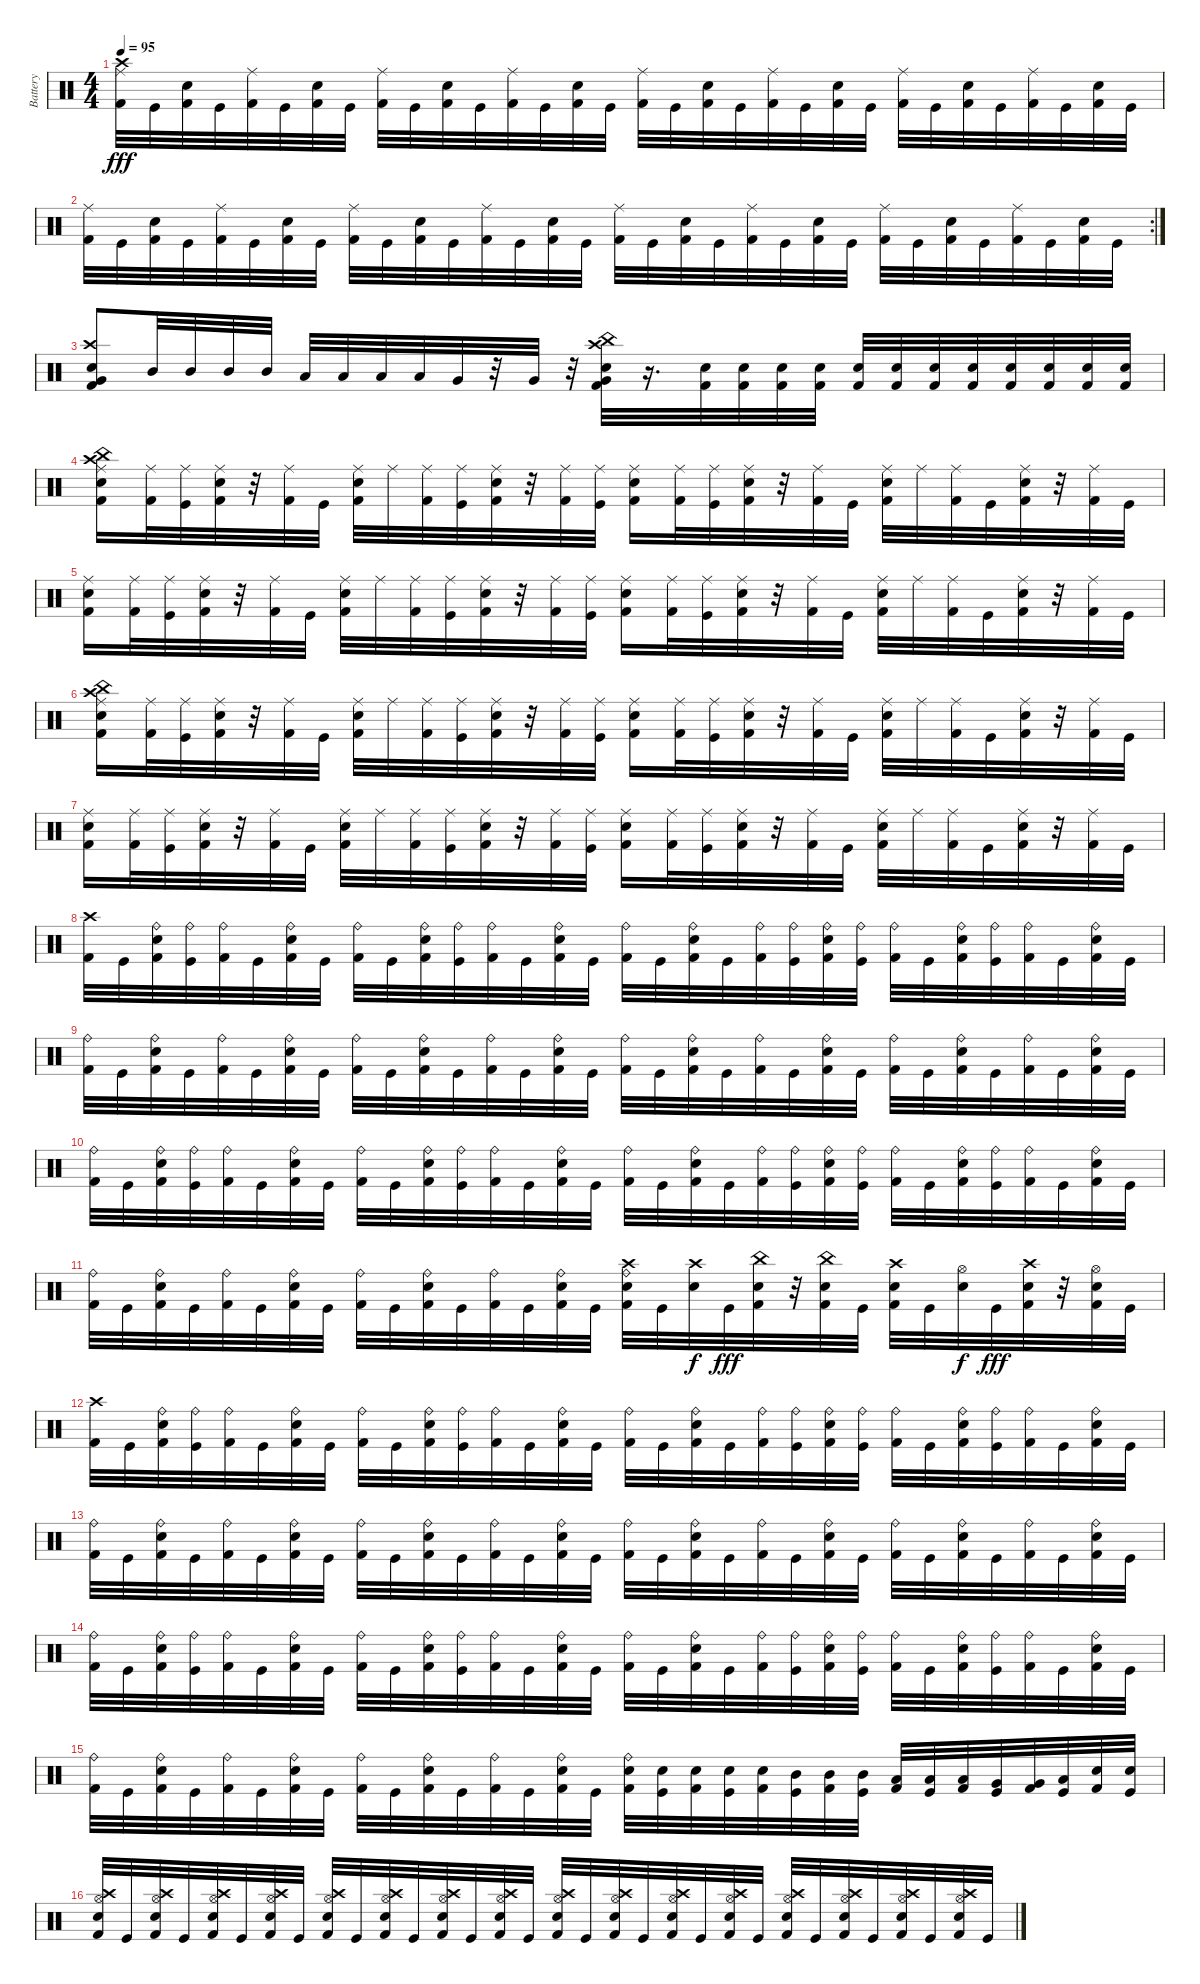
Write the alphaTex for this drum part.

\track ("Battery" "Battery") {instrument percussion}
\staff {score}
\articulation defaults
\ts (4 4)
\tempo 95
\clef neutral
\ks c
("Ride (middle)" "Kick (hit) 2" "Crash high (hit)").32{dy fff} "Kick (hit)".32 ("Electric Snare (hit)" "Kick (hit) 2").32 "Kick (hit)".32 ("Kick (hit) 2" "Ride (middle)").32 "Kick (hit)".32 ("Kick (hit) 2" "Electric Snare (hit)").32 "Kick (hit)".32 ("Kick (hit) 2" "Ride (middle)").32 "Kick (hit)".32 ("Electric Snare (hit)" "Kick (hit) 2").32 "Kick (hit)".32 ("Ride (middle)" "Kick (hit) 2").32 "Kick (hit)".32 ("Electric Snare (hit)" "Kick (hit) 2").32 "Kick (hit)".32 ("Kick (hit) 2" "Ride (middle)").32 "Kick (hit)".32 ("Kick (hit) 2" "Electric Snare (hit)").32 "Kick (hit)".32 ("Kick (hit) 2" "Ride (middle)").32 "Kick (hit)".32 ("Electric Snare (hit)" "Kick (hit) 2").32 "Kick (hit)".32 ("Kick (hit) 2" "Ride (middle)").32 "Kick (hit)".32 ("Kick (hit) 2" "Electric Snare (hit)").32 "Kick (hit)".32 ("Ride (middle)" "Kick (hit) 2").32 "Kick (hit)".32 ("Kick (hit) 2" "Electric Snare (hit)").32 "Kick (hit)".32 |
\rc 2
("Kick (hit) 2" "Ride (middle)").32 "Kick (hit)".32 ("Electric Snare (hit)" "Kick (hit) 2").32 "Kick (hit)".32 ("Ride (middle)" "Kick (hit) 2").32 "Kick (hit)".32 ("Kick (hit) 2" "Electric Snare (hit)").32 "Kick (hit)".32 ("Ride (middle)" "Kick (hit) 2").32 "Kick (hit)".32 ("Electric Snare (hit)" "Kick (hit) 2").32 "Kick (hit)".32 ("Kick (hit) 2" "Ride (middle)").32 "Kick (hit)".32 ("Electric Snare (hit)" "Kick (hit) 2").32 "Kick (hit)".32 ("Ride (middle)" "Kick (hit) 2").32 "Kick (hit)".32 ("Electric Snare (hit)" "Kick (hit) 2").32 "Kick (hit)".32 ("Kick (hit) 2" "Ride (middle)").32 "Kick (hit)".32 ("Electric Snare (hit)" "Kick (hit) 2").32 "Kick (hit)".32 ("Ride (middle)" "Kick (hit) 2").32 "Kick (hit)".32 ("Electric Snare (hit)" "Kick (hit) 2").32 "Kick (hit)".32 ("Kick (hit) 2" "Ride (middle)").32 "Kick (hit)".32 ("Kick (hit) 2" "Electric Snare (hit)").32 "Kick (hit)".32 |
("Very Low Tom (hit)" "Electric Snare (hit)" "Crash high (hit)" "Kick (hit) 2").8 "Mid Tom (hit)".32 "Mid Tom (hit)".32 "Mid Tom (hit)".32 "Mid Tom (hit)".32 "Low Tom (hit)".32 "Low Tom (hit)".32 "Low Tom (hit)".32 "Low Tom (hit)".32 "Very Low Tom (hit)".32 r.32 "Very Low Tom (hit)".32 r.32 ("Electric Snare (hit)" "Crash high (hit)" "Very Low Tom (hit)" "China (hit)" "Kick (hit) 2").32 r.16{d} ("Electric Snare (hit)" "Kick (hit) 2").32 ("Electric Snare (hit)" "Kick (hit) 2").32 ("Electric Snare (hit)" "Kick (hit) 2").32 ("Electric Snare (hit)" "Kick (hit) 2").32 ("Electric Snare (hit)" "Kick (hit) 2").32 ("Electric Snare (hit)" "Kick (hit) 2").32 ("Electric Snare (hit)" "Kick (hit) 2").32 ("Electric Snare (hit)" "Kick (hit) 2").32 ("Electric Snare (hit)" "Kick (hit) 2").32 ("Electric Snare (hit)" "Kick (hit) 2").32 ("Electric Snare (hit)" "Kick (hit) 2").32 ("Electric Snare (hit)" "Kick (hit) 2").32 |
("Electric Snare (hit)" "China (hit)" "Crash high (hit)" "Kick (hit) 2" "Ride (middle)").16 ("Kick (hit) 2" "Ride (middle)").32 ("Ride (middle)" "Kick (hit)").32 ("Electric Snare (hit)" "Ride (middle)" "Kick (hit) 2").32 r.32 ("Kick (hit) 2" "Ride (middle)").32 "Kick (hit)".32 ("Kick (hit) 2" "Electric Snare (hit)" "Ride (middle)").32 "Ride (middle)".32 ("Kick (hit) 2" "Ride (middle)").32 ("Kick (hit)" "Ride (middle)").32 ("Electric Snare (hit)" "Ride (middle)" "Kick (hit) 2").32 r.32 ("Ride (middle)" "Kick (hit) 2").32 ("Ride (middle)" "Kick (hit)").32 ("Kick (hit) 2" "Ride (middle)" "Electric Snare (hit)").16 ("Ride (middle)" "Kick (hit) 2").32 ("Kick (hit)" "Ride (middle)").32 ("Kick (hit) 2" "Ride (middle)" "Electric Snare (hit)").32 r.32 ("Ride (middle)" "Kick (hit) 2").32 "Kick (hit)".32 ("Electric Snare (hit)" "Kick (hit) 2" "Ride (middle)").32 "Ride (middle)".32 ("Kick (hit) 2" "Ride (middle)").32 "Kick (hit)".32 ("Kick (hit) 2" "Ride (middle)" "Electric Snare (hit)").32 r.32 ("Kick (hit) 2" "Ride (middle)").32 "Kick (hit)".32 |
("Electric Snare (hit)" "Ride (middle)" "Kick (hit) 2").16 ("Kick (hit) 2" "Ride (middle)").32 ("Kick (hit)" "Ride (middle)").32 ("Electric Snare (hit)" "Kick (hit) 2" "Ride (middle)").32 r.32 ("Ride (middle)" "Kick (hit) 2").32 "Kick (hit)".32 ("Electric Snare (hit)" "Kick (hit) 2" "Ride (middle)").32 "Ride (middle)".32 ("Ride (middle)" "Kick (hit) 2").32 ("Ride (middle)" "Kick (hit)").32 ("Ride (middle)" "Electric Snare (hit)" "Kick (hit) 2").32 r.32 ("Ride (middle)" "Kick (hit) 2").32 ("Kick (hit)" "Ride (middle)").32 ("Electric Snare (hit)" "Kick (hit) 2" "Ride (middle)").16 ("Ride (middle)" "Kick (hit) 2").32 ("Ride (middle)" "Kick (hit)").32 ("Kick (hit) 2" "Ride (middle)" "Electric Snare (hit)").32 r.32 ("Ride (middle)" "Kick (hit) 2").32 "Kick (hit)".32 ("Kick (hit) 2" "Ride (middle)" "Electric Snare (hit)").32 "Ride (middle)".32 ("Kick (hit) 2" "Ride (middle)").32 "Kick (hit)".32 ("Ride (middle)" "Electric Snare (hit)" "Kick (hit) 2").32 r.32 ("Kick (hit) 2" "Ride (middle)").32 "Kick (hit)".32 |
("Ride (middle)" "China (hit)" "Kick (hit) 2" "Electric Snare (hit)" "Crash high (hit)").16 ("Ride (middle)" "Kick (hit) 2").32 ("Kick (hit)" "Ride (middle)").32 ("Electric Snare (hit)" "Kick (hit) 2" "Ride (middle)").32 r.32 ("Ride (middle)" "Kick (hit) 2").32 "Kick (hit)".32 ("Electric Snare (hit)" "Ride (middle)" "Kick (hit) 2").32 "Ride (middle)".32 ("Ride (middle)" "Kick (hit) 2").32 ("Kick (hit)" "Ride (middle)").32 ("Ride (middle)" "Electric Snare (hit)" "Kick (hit) 2").32 r.32 ("Ride (middle)" "Kick (hit) 2").32 ("Ride (middle)" "Kick (hit)").32 ("Electric Snare (hit)" "Ride (middle)" "Kick (hit) 2").16 ("Kick (hit) 2" "Ride (middle)").32 ("Kick (hit)" "Ride (middle)").32 ("Kick (hit) 2" "Electric Snare (hit)" "Ride (middle)").32 r.32 ("Kick (hit) 2" "Ride (middle)").32 "Kick (hit)".32 ("Kick (hit) 2" "Electric Snare (hit)" "Ride (middle)").32 "Ride (middle)".32 ("Kick (hit) 2" "Ride (middle)").32 "Kick (hit)".32 ("Electric Snare (hit)" "Kick (hit) 2" "Ride (middle)").32 r.32 ("Ride (middle)" "Kick (hit) 2").32 "Kick (hit)".32 |
("Ride (middle)" "Kick (hit) 2" "Electric Snare (hit)").16 ("Kick (hit) 2" "Ride (middle)").32 ("Kick (hit)" "Ride (middle)").32 ("Electric Snare (hit)" "Kick (hit) 2" "Ride (middle)").32 r.32 ("Kick (hit) 2" "Ride (middle)").32 "Kick (hit)".32 ("Kick (hit) 2" "Electric Snare (hit)" "Ride (middle)").32 "Ride (middle)".32 ("Ride (middle)" "Kick (hit) 2").32 ("Kick (hit)" "Ride (middle)").32 ("Electric Snare (hit)" "Ride (middle)" "Kick (hit) 2").32 r.32 ("Ride (middle)" "Kick (hit) 2").32 ("Kick (hit)" "Ride (middle)").32 ("Kick (hit) 2" "Electric Snare (hit)" "Ride (middle)").16 ("Ride (middle)" "Kick (hit) 2").32 ("Kick (hit)" "Ride (middle)").32 ("Electric Snare (hit)" "Ride (middle)" "Kick (hit) 2").32 r.32 ("Ride (middle)" "Kick (hit) 2").32 "Kick (hit)".32 ("Ride (middle)" "Kick (hit) 2" "Electric Snare (hit)").32 "Ride (middle)".32 ("Ride (middle)" "Kick (hit) 2").32 "Kick (hit)".32 ("Kick (hit) 2" "Electric Snare (hit)" "Ride (middle)").32 r.32 ("Ride (middle)" "Kick (hit) 2").32 "Kick (hit)".32 |
("Crash high (hit)" "Kick (hit) 2").32 "Kick (hit)".32 ("Ride (bell)" "Electric Snare (hit)" "Kick (hit) 2").32 ("Ride (bell)" "Kick (hit)").32 ("Ride (bell)" "Kick (hit) 2").32 "Kick (hit)".32 ("Ride (bell)" "Electric Snare (hit)" "Kick (hit) 2").32 "Kick (hit)".32 ("Ride (bell)" "Kick (hit) 2").32 "Kick (hit)".32 ("Electric Snare (hit)" "Ride (bell)" "Kick (hit) 2").32 ("Ride (bell)" "Kick (hit)").32 ("Ride (bell)" "Kick (hit) 2").32 "Kick (hit)".32 ("Ride (bell)" "Electric Snare (hit)" "Kick (hit) 2").32 "Kick (hit)".32 ("Ride (bell)" "Kick (hit) 2").32 "Kick (hit)".32 ("Electric Snare (hit)" "Ride (bell)" "Kick (hit) 2").32 "Kick (hit)".32 ("Ride (bell)" "Kick (hit) 2").32 ("Ride (bell)" "Kick (hit)").32 ("Electric Snare (hit)" "Ride (bell)" "Kick (hit) 2").32 ("Ride (bell)" "Kick (hit)").32 ("Ride (bell)" "Kick (hit) 2").32 "Kick (hit)".32 ("Electric Snare (hit)" "Ride (bell)" "Kick (hit) 2").32 ("Ride (bell)" "Kick (hit)").32 ("Ride (bell)" "Kick (hit) 2").32 "Kick (hit)".32 ("Electric Snare (hit)" "Ride (bell)" "Kick (hit) 2").32 "Kick (hit)".32 |
("Ride (bell)" "Kick (hit) 2").32 "Kick (hit)".32 ("Ride (bell)" "Electric Snare (hit)" "Kick (hit) 2").32 "Kick (hit)".32 ("Ride (bell)" "Kick (hit) 2").32 "Kick (hit)".32 ("Ride (bell)" "Electric Snare (hit)" "Kick (hit) 2").32 "Kick (hit)".32 ("Ride (bell)" "Kick (hit) 2").32 "Kick (hit)".32 ("Electric Snare (hit)" "Ride (bell)" "Kick (hit) 2").32 "Kick (hit)".32 ("Ride (bell)" "Kick (hit) 2").32 "Kick (hit)".32 ("Ride (bell)" "Electric Snare (hit)" "Kick (hit) 2").32 "Kick (hit)".32 ("Ride (bell)" "Kick (hit) 2").32 "Kick (hit)".32 ("Electric Snare (hit)" "Ride (bell)" "Kick (hit) 2").32 "Kick (hit)".32 ("Ride (bell)" "Kick (hit) 2").32 "Kick (hit)".32 ("Ride (bell)" "Electric Snare (hit)" "Kick (hit) 2").32 "Kick (hit)".32 ("Ride (bell)" "Kick (hit) 2").32 "Kick (hit)".32 ("Ride (bell)" "Electric Snare (hit)" "Kick (hit) 2").32 "Kick (hit)".32 ("Ride (bell)" "Kick (hit) 2").32 "Kick (hit)".32 ("Ride (bell)" "Electric Snare (hit)" "Kick (hit) 2").32 "Kick (hit)".32 |
("Ride (bell)" "Kick (hit) 2").32 "Kick (hit)".32 ("Ride (bell)" "Electric Snare (hit)" "Kick (hit) 2").32 ("Ride (bell)" "Kick (hit)").32 ("Ride (bell)" "Kick (hit) 2").32 "Kick (hit)".32 ("Ride (bell)" "Electric Snare (hit)" "Kick (hit) 2").32 "Kick (hit)".32 ("Ride (bell)" "Kick (hit) 2").32 "Kick (hit)".32 ("Electric Snare (hit)" "Ride (bell)" "Kick (hit) 2").32 ("Ride (bell)" "Kick (hit)").32 ("Ride (bell)" "Kick (hit) 2").32 "Kick (hit)".32 ("Electric Snare (hit)" "Ride (bell)" "Kick (hit) 2").32 "Kick (hit)".32 ("Ride (bell)" "Kick (hit) 2").32 "Kick (hit)".32 ("Electric Snare (hit)" "Ride (bell)" "Kick (hit) 2").32 "Kick (hit)".32 ("Ride (bell)" "Kick (hit) 2").32 ("Ride (bell)" "Kick (hit)").32 ("Electric Snare (hit)" "Ride (bell)" "Kick (hit) 2").32 ("Ride (bell)" "Kick (hit)").32 ("Ride (bell)" "Kick (hit) 2").32 "Kick (hit)".32 ("Electric Snare (hit)" "Ride (bell)" "Kick (hit) 2").32 ("Ride (bell)" "Kick (hit)").32 ("Ride (bell)" "Kick (hit) 2").32 "Kick (hit)".32 ("Ride (bell)" "Electric Snare (hit)" "Kick (hit) 2").32 "Kick (hit)".32 |
("Ride (bell)" "Kick (hit) 2").32 "Kick (hit)".32 ("Electric Snare (hit)" "Ride (bell)" "Kick (hit) 2").32 "Kick (hit)".32 ("Ride (bell)" "Kick (hit) 2").32 "Kick (hit)".32 ("Ride (bell)" "Electric Snare (hit)" "Kick (hit) 2").32 "Kick (hit)".32 ("Ride (bell)" "Kick (hit) 2").32 "Kick (hit)".32 ("Ride (bell)" "Electric Snare (hit)" "Kick (hit) 2").32 "Kick (hit)".32 ("Ride (bell)" "Kick (hit) 2").32 "Kick (hit)".32 ("Electric Snare (hit)" "Ride (bell)" "Kick (hit) 2").32 "Kick (hit)".32 ("Ride (bell)" "Kick (hit) 2" "Crash high (hit)" "Electric Snare (hit)").32 "Kick (hit)".32 ("Crash high (hit)" "Electric Snare (hit)").32{dy f} "Kick (hit)".32{dy fff} ("Electric Snare (hit)" "China (hit)" "Kick (hit) 2").32 r.32 ("China (hit)" "Electric Snare (hit)" "Kick (hit) 2").32 "Kick (hit)".32 ("Electric Snare (hit)" "Kick (hit) 2" "Crash high (hit)").32 "Kick (hit)".32 ("Hi-Hat (open)" "Electric Snare (hit)").32{dy f} "Kick (hit)".32{dy fff} ("Crash high (hit)" "Electric Snare (hit)" "Kick (hit) 2").32 r.32 ("Hi-Hat (open)" "Electric Snare (hit)" "Kick (hit) 2").32 "Kick (hit)".32 |
("Crash high (hit)" "Kick (hit) 2").32 "Kick (hit)".32 ("Electric Snare (hit)" "Ride (bell)" "Kick (hit) 2").32 ("Kick (hit)" "Ride (bell)").32 ("Kick (hit) 2" "Ride (bell)").32 "Kick (hit)".32 ("Kick (hit) 2" "Ride (bell)" "Electric Snare (hit)").32 "Kick (hit)".32 ("Kick (hit) 2" "Ride (bell)").32 "Kick (hit)".32 ("Kick (hit) 2" "Electric Snare (hit)" "Ride (bell)").32 ("Kick (hit)" "Ride (bell)").32 ("Ride (bell)" "Kick (hit) 2").32 "Kick (hit)".32 ("Electric Snare (hit)" "Kick (hit) 2" "Ride (bell)").32 "Kick (hit)".32 ("Ride (bell)" "Kick (hit) 2").32 "Kick (hit)".32 ("Electric Snare (hit)" "Ride (bell)" "Kick (hit) 2").32 "Kick (hit)".32 ("Ride (bell)" "Kick (hit) 2").32 ("Ride (bell)" "Kick (hit)").32 ("Ride (bell)" "Kick (hit) 2" "Electric Snare (hit)").32 ("Ride (bell)" "Kick (hit)").32 ("Ride (bell)" "Kick (hit) 2").32 "Kick (hit)".32 ("Kick (hit) 2" "Ride (bell)" "Electric Snare (hit)").32 ("Kick (hit)" "Ride (bell)").32 ("Ride (bell)" "Kick (hit) 2").32 "Kick (hit)".32 ("Kick (hit) 2" "Electric Snare (hit)" "Ride (bell)").32 "Kick (hit)".32 |
("Kick (hit) 2" "Ride (bell)").32 "Kick (hit)".32 ("Kick (hit) 2" "Ride (bell)" "Electric Snare (hit)").32 "Kick (hit)".32 ("Ride (bell)" "Kick (hit) 2").32 "Kick (hit)".32 ("Kick (hit) 2" "Electric Snare (hit)" "Ride (bell)").32 "Kick (hit)".32 ("Ride (bell)" "Kick (hit) 2").32 "Kick (hit)".32 ("Kick (hit) 2" "Ride (bell)" "Electric Snare (hit)").32 "Kick (hit)".32 ("Ride (bell)" "Kick (hit) 2").32 "Kick (hit)".32 ("Kick (hit) 2" "Ride (bell)" "Electric Snare (hit)").32 "Kick (hit)".32 ("Ride (bell)" "Kick (hit) 2").32 "Kick (hit)".32 ("Kick (hit) 2" "Ride (bell)" "Electric Snare (hit)").32 "Kick (hit)".32 ("Ride (bell)" "Kick (hit) 2").32 "Kick (hit)".32 ("Kick (hit) 2" "Electric Snare (hit)" "Ride (bell)").32 "Kick (hit)".32 ("Ride (bell)" "Kick (hit) 2").32 "Kick (hit)".32 ("Kick (hit) 2" "Ride (bell)" "Electric Snare (hit)").32 "Kick (hit)".32 ("Ride (bell)" "Kick (hit) 2").32 "Kick (hit)".32 ("Ride (bell)" "Electric Snare (hit)" "Kick (hit) 2").32 "Kick (hit)".32 |
("Kick (hit) 2" "Ride (bell)").32 "Kick (hit)".32 ("Ride (bell)" "Electric Snare (hit)" "Kick (hit) 2").32 ("Ride (bell)" "Kick (hit)").32 ("Kick (hit) 2" "Ride (bell)").32 "Kick (hit)".32 ("Ride (bell)" "Kick (hit) 2" "Electric Snare (hit)").32 "Kick (hit)".32 ("Kick (hit) 2" "Ride (bell)").32 "Kick (hit)".32 ("Electric Snare (hit)" "Kick (hit) 2" "Ride (bell)").32 ("Ride (bell)" "Kick (hit)").32 ("Ride (bell)" "Kick (hit) 2").32 "Kick (hit)".32 ("Kick (hit) 2" "Electric Snare (hit)" "Ride (bell)").32 "Kick (hit)".32 ("Ride (bell)" "Kick (hit) 2").32 "Kick (hit)".32 ("Kick (hit) 2" "Ride (bell)" "Electric Snare (hit)").32 "Kick (hit)".32 ("Ride (bell)" "Kick (hit) 2").32 ("Ride (bell)" "Kick (hit)").32 ("Electric Snare (hit)" "Kick (hit) 2" "Ride (bell)").32 ("Ride (bell)" "Kick (hit)").32 ("Ride (bell)" "Kick (hit) 2").32 "Kick (hit)".32 ("Kick (hit) 2" "Electric Snare (hit)" "Ride (bell)").32 ("Kick (hit)" "Ride (bell)").32 ("Ride (bell)" "Kick (hit) 2").32 "Kick (hit)".32 ("Electric Snare (hit)" "Kick (hit) 2" "Ride (bell)").32 "Kick (hit)".32 |
("Ride (bell)" "Kick (hit) 2").32 "Kick (hit)".32 ("Kick (hit) 2" "Ride (bell)" "Electric Snare (hit)").32 "Kick (hit)".32 ("Ride (bell)" "Kick (hit) 2").32 "Kick (hit)".32 ("Kick (hit) 2" "Electric Snare (hit)" "Ride (bell)").32 "Kick (hit)".32 ("Ride (bell)" "Kick (hit) 2").32 "Kick (hit)".32 ("Kick (hit) 2" "Ride (bell)" "Electric Snare (hit)").32 "Kick (hit)".32 ("Kick (hit) 2" "Ride (bell)").32 "Kick (hit)".32 ("Kick (hit) 2" "Electric Snare (hit)" "Ride (bell)").32 "Kick (hit)".32 ("Electric Snare (hit)" "Ride (bell)" "Kick (hit) 2").32 ("Kick (hit)" "Electric Snare (hit)").32 ("Electric Snare (hit)" "Kick (hit) 2").32 ("Electric Snare (hit)" "Kick (hit)").32 ("Kick (hit) 2" "Electric Snare (hit)").32 ("Mid Tom (hit)" "Kick (hit)").32 ("Kick (hit) 2" "Mid Tom (hit)").32 ("Mid Tom (hit)" "Kick (hit)").32 ("Kick (hit) 2" "Low Tom (hit)").32 ("Low Tom (hit)" "Kick (hit)").32 ("Low Tom (hit)" "Kick (hit) 2").32 ("Very Low Tom (hit)" "Kick (hit)").32 ("Kick (hit) 2" "Very Low Tom (hit)").32 ("Low Floor Tom (hit)" "Kick (hit)").32 ("Kick (hit) 2" "Electric Snare (hit)").32 ("Electric Snare (hit)" "Kick (hit)").32 |
("Hi-Hat (open)" "Kick (hit) 2" "Crash high (hit)" "Snare (hit) 2").32 "Kick (hit)".32 ("Crash high (hit)" "Kick (hit) 2" "Hi-Hat (open)" "Snare (hit) 2").32 "Kick (hit)".32 ("Hi-Hat (open)" "Crash high (hit)" "Kick (hit) 2" "Snare (hit) 2").32 "Kick (hit)".32 ("Kick (hit) 2" "Crash high (hit)" "Hi-Hat (open)" "Snare (hit) 2").32 "Kick (hit)".32 ("Kick (hit) 2" "Hi-Hat (open)" "Snare (hit) 2" "Crash high (hit)").32 "Kick (hit)".32 ("Kick (hit) 2" "Snare (hit) 2" "Hi-Hat (open)" "Crash high (hit)").32 "Kick (hit)".32 ("Hi-Hat (open)" "Kick (hit) 2" "Snare (hit) 2" "Crash high (hit)").32 "Kick (hit)".32 ("Kick (hit) 2" "Hi-Hat (open)" "Crash high (hit)" "Snare (hit) 2").32 "Kick (hit)".32 ("Kick (hit) 2" "Snare (hit) 2" "Hi-Hat (open)" "Crash high (hit)").32 "Kick (hit)".32 ("Snare (hit) 2" "Hi-Hat (open)" "Crash high (hit)" "Kick (hit) 2").32 "Kick (hit)".32 ("Snare (hit) 2" "Hi-Hat (open)" "Kick (hit) 2" "Crash high (hit)").32 "Kick (hit)".32 ("Snare (hit) 2" "Kick (hit) 2" "Crash high (hit)" "Hi-Hat (open)").32 "Kick (hit)".32 ("Crash high (hit)" "Hi-Hat (open)" "Kick (hit) 2" "Snare (hit) 2").32 "Kick (hit)".32 ("Snare (hit) 2" "Kick (hit) 2" "Crash high (hit)" "Hi-Hat (open)").32 "Kick (hit)".32 ("Snare (hit) 2" "Crash high (hit)" "Hi-Hat (open)" "Kick (hit) 2").32 "Kick (hit)".32 ("Hi-Hat (open)" "Kick (hit) 2" "Crash high (hit)" "Snare (hit) 2").32 "Kick (hit)".32
